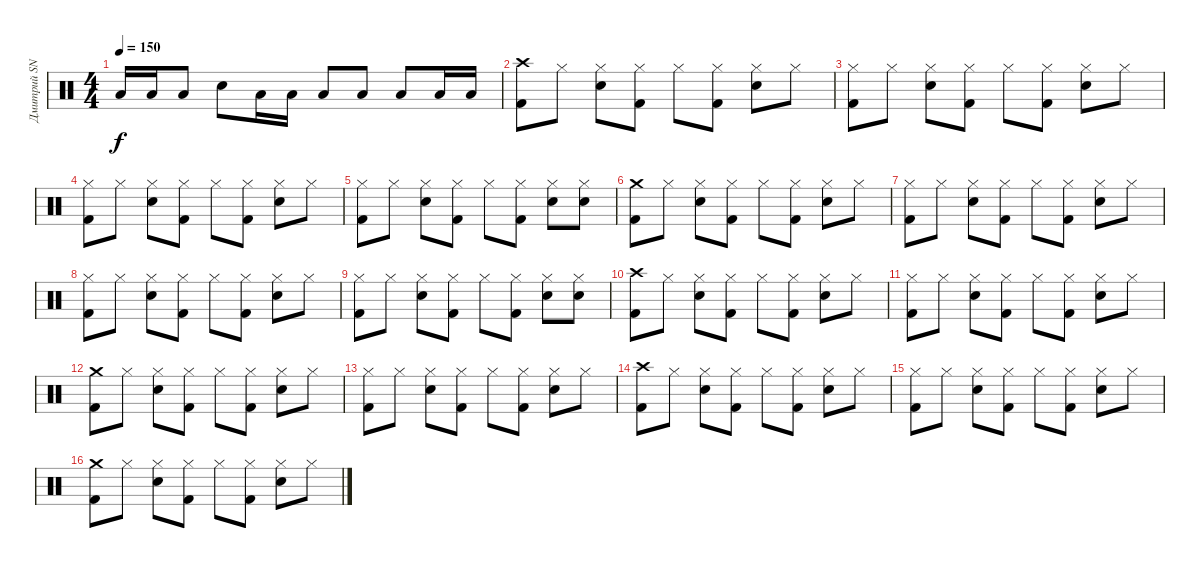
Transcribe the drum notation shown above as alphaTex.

\track ("Дмитрий SNAKE Хакимов" "Дмитрий SN") {instrument percussion}
\staff {score}
\articulation defaults
\ts (4 4)
\tempo 150
\clef neutral
\ks c "Low Tom (hit)".16{dy f} "Low Tom (hit)".16 "Low Tom (hit)".8 "Snare (hit) 2".8 "Low Tom (hit)".16 "Low Tom (hit)".16 "Low Tom (hit)".8 "Low Tom (hit)".8 "Low Tom (hit)".8 "Low Tom (hit)".16 "Low Tom (hit)".16
|
("Crash high (hit)" "Kick (hit) 2").8 "Hi-Hat (closed)".8 ("Hi-Hat (closed)" "Snare (hit) 2").8 ("Hi-Hat (closed)" "Kick (hit) 2").8 "Hi-Hat (closed)".8 ("Hi-Hat (closed)" "Kick (hit) 2").8 ("Hi-Hat (closed)" "Snare (hit) 2").8 "Hi-Hat (closed)".8 |
("Hi-Hat (closed)" "Kick (hit) 2").8 "Hi-Hat (closed)".8 ("Hi-Hat (closed)" "Snare (hit) 2").8 ("Hi-Hat (closed)" "Kick (hit) 2").8 "Hi-Hat (closed)".8 ("Hi-Hat (closed)" "Kick (hit) 2").8 ("Hi-Hat (closed)" "Snare (hit) 2").8 "Hi-Hat (closed)".8 |
("Hi-Hat (closed)" "Kick (hit) 2").8 "Hi-Hat (closed)".8 ("Hi-Hat (closed)" "Snare (hit) 2").8 ("Hi-Hat (closed)" "Kick (hit) 2").8 "Hi-Hat (closed)".8 ("Hi-Hat (closed)" "Kick (hit) 2").8 ("Hi-Hat (closed)" "Snare (hit) 2").8 "Hi-Hat (closed)".8 |
("Hi-Hat (closed)" "Kick (hit) 2").8 "Hi-Hat (closed)".8 ("Hi-Hat (closed)" "Snare (hit) 2").8 ("Hi-Hat (closed)" "Kick (hit) 2").8 "Hi-Hat (closed)".8 ("Hi-Hat (closed)" "Kick (hit) 2").8 ("Hi-Hat (closed)" "Snare (hit) 2").8 ("Hi-Hat (closed)" "Snare (hit) 2").8 |
("Crash medium (hit)" "Kick (hit) 2").8 "Hi-Hat (closed)".8 ("Hi-Hat (closed)" "Snare (hit) 2").8 ("Hi-Hat (closed)" "Kick (hit) 2").8 "Hi-Hat (closed)".8 ("Hi-Hat (closed)" "Kick (hit) 2").8 ("Hi-Hat (closed)" "Snare (hit) 2").8 "Hi-Hat (closed)".8 |
("Hi-Hat (closed)" "Kick (hit) 2").8 "Hi-Hat (closed)".8 ("Hi-Hat (closed)" "Snare (hit) 2").8 ("Hi-Hat (closed)" "Kick (hit) 2").8 "Hi-Hat (closed)".8 ("Hi-Hat (closed)" "Kick (hit) 2").8 ("Hi-Hat (closed)" "Snare (hit) 2").8 "Hi-Hat (closed)".8 |
("Hi-Hat (closed)" "Kick (hit) 2").8 "Hi-Hat (closed)".8 ("Hi-Hat (closed)" "Snare (hit) 2").8 ("Hi-Hat (closed)" "Kick (hit) 2").8 "Hi-Hat (closed)".8 ("Hi-Hat (closed)" "Kick (hit) 2").8 ("Hi-Hat (closed)" "Snare (hit) 2").8 "Hi-Hat (closed)".8 |
("Hi-Hat (closed)" "Kick (hit) 2").8 "Hi-Hat (closed)".8 ("Hi-Hat (closed)" "Snare (hit) 2").8 ("Hi-Hat (closed)" "Kick (hit) 2").8 "Hi-Hat (closed)".8 ("Hi-Hat (closed)" "Kick (hit) 2").8 ("Hi-Hat (closed)" "Snare (hit) 2").8 ("Hi-Hat (closed)" "Snare (hit) 2").8 |
("Crash high (hit)" "Kick (hit) 2").8 "Hi-Hat (closed)".8 ("Hi-Hat (closed)" "Snare (hit) 2").8 ("Hi-Hat (closed)" "Kick (hit) 2").8 "Hi-Hat (closed)".8 ("Hi-Hat (closed)" "Kick (hit) 2").8 ("Hi-Hat (closed)" "Snare (hit) 2").8 "Hi-Hat (closed)".8 |
("Hi-Hat (closed)" "Kick (hit) 2").8 "Hi-Hat (closed)".8 ("Hi-Hat (closed)" "Snare (hit) 2").8 ("Hi-Hat (closed)" "Kick (hit) 2").8 "Hi-Hat (closed)".8 ("Hi-Hat (closed)" "Kick (hit) 2").8 ("Hi-Hat (closed)" "Snare (hit) 2").8 "Hi-Hat (closed)".8 |
("Crash medium (hit)" "Kick (hit) 2").8 "Hi-Hat (closed)".8 ("Hi-Hat (closed)" "Snare (hit) 2").8 ("Hi-Hat (closed)" "Kick (hit) 2").8 "Hi-Hat (closed)".8 ("Hi-Hat (closed)" "Kick (hit) 2").8 ("Hi-Hat (closed)" "Snare (hit) 2").8 "Hi-Hat (closed)".8 |
("Hi-Hat (closed)" "Kick (hit) 2").8 "Hi-Hat (closed)".8 ("Hi-Hat (closed)" "Snare (hit) 2").8 ("Hi-Hat (closed)" "Kick (hit) 2").8 "Hi-Hat (closed)".8 ("Hi-Hat (closed)" "Kick (hit) 2").8 ("Hi-Hat (closed)" "Snare (hit) 2").8 "Hi-Hat (closed)".8 |
("Crash high (hit)" "Kick (hit) 2").8 "Hi-Hat (closed)".8 ("Hi-Hat (closed)" "Snare (hit) 2").8 ("Hi-Hat (closed)" "Kick (hit) 2").8 "Hi-Hat (closed)".8 ("Hi-Hat (closed)" "Kick (hit) 2").8 ("Hi-Hat (closed)" "Snare (hit) 2").8 "Hi-Hat (closed)".8 |
("Hi-Hat (closed)" "Kick (hit) 2").8 "Hi-Hat (closed)".8 ("Hi-Hat (closed)" "Snare (hit) 2").8 ("Hi-Hat (closed)" "Kick (hit) 2").8 "Hi-Hat (closed)".8 ("Hi-Hat (closed)" "Kick (hit) 2").8 ("Hi-Hat (closed)" "Snare (hit) 2").8 "Hi-Hat (closed)".8 |
("Crash medium (hit)" "Kick (hit) 2").8 "Hi-Hat (closed)".8 ("Hi-Hat (closed)" "Snare (hit) 2").8 ("Hi-Hat (closed)" "Kick (hit) 2").8 "Hi-Hat (closed)".8 ("Hi-Hat (closed)" "Kick (hit) 2").8 ("Hi-Hat (closed)" "Snare (hit) 2").8 "Hi-Hat (closed)".8
